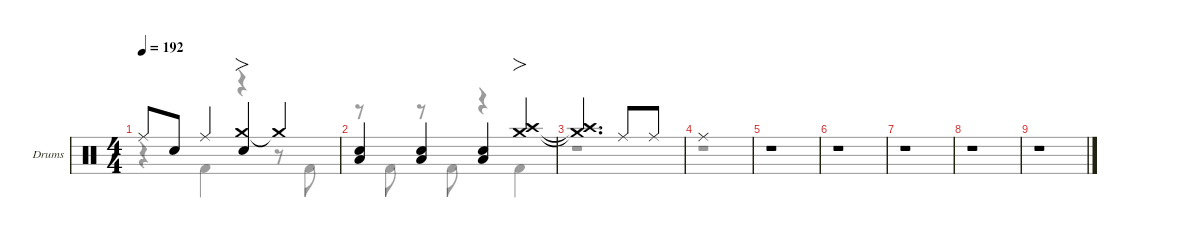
\defaultSystemsLayout 4
\hideDynamics
\bracketExtendMode nobrackets
\firstSystemTrackNameOrientation horizontal
\track ("Drums" "Drums") {defaultSystemsLayout 4 instrument percussion}
\staff {score}
\articulation defaults
\voice
\ts (4 4)
\tempo 192
\clef neutral
\scale
0.247295
\ks c "Ride (middle)".8{dy f beam Up} "Snare (hit) 2".8{beam Up} "Ride (middle)".4{beam Up}
("Crash medium (hit)" "Snare (hit) 2").4{fo beam Up} "Crash medium (hit)"{t}.4{beam Up} |
\scale
0.240968 ("Snare (hit) 2" "Low Tom (hit)").4{beam Up} ("Snare (hit) 2" "Low Tom (hit)").4{beam Up} ("Snare (hit) 2" "Low Tom (hit)").4{beam Up} ("Crash high (hit)" "Crash medium (hit)").4{fo beam Up} |
\scale
0.244132 ("Crash high (hit)"{t} "Crash medium (hit)"{t}).2{d beam Up} "Ride (middle)".8{beam Up} "Ride (middle)".8{beam Up} |
"Ride (middle)".1{beam Up} |
r.1{beam Up} |
r.1{beam Up} |
r.1{beam Up} |
\scale
0.511737 r.1{beam Up} |
\scale
0.488263 r.1{beam Up}
\voice
\clef neutral
\ottava regular
\simile none
\scale
0.247295
\ks c
r.4{dy f beam Down} "Kick (hit) 2".4{beam Down} r.4{beam Down} r.8{beam Down} "Kick (hit) 2".8{beam Down} |
\scale
0.240968 r.8{beam Down} "Kick (hit) 2".8{beam Down} r.8{beam Down} "Kick (hit) 2".8{beam Down} r.4{beam Down} "Kick (hit) 2".4{beam Down} |
\scale
0.244132 r.1{beam Down} |
r.1{beam Down} |
r.1{beam Down} |
r.1{beam Down} |
r.1{beam Down} |
\scale
0.511737 r.1{beam Down} |
\scale
0.488263 r.1{beam Down}
